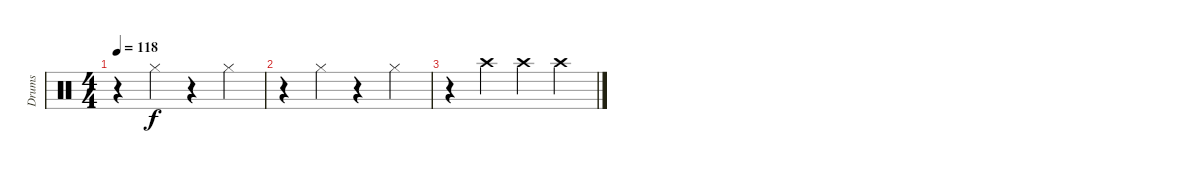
\track ("Drums" "Drums") {instrument percussion}
\staff {score}
\articulation defaults
\ts (4 4)
\tempo 118
\clef neutral
\ks c
r.4{dy f} "Hi-Hat (closed)".4 r.4 "Hi-Hat (closed)".4 |
r.4 "Hi-Hat (closed)".4 r.4 "Hi-Hat (closed)".4 |
r.4 "Crash high (hit)".4 "Crash high (hit)".4 "Crash high (hit)".4
